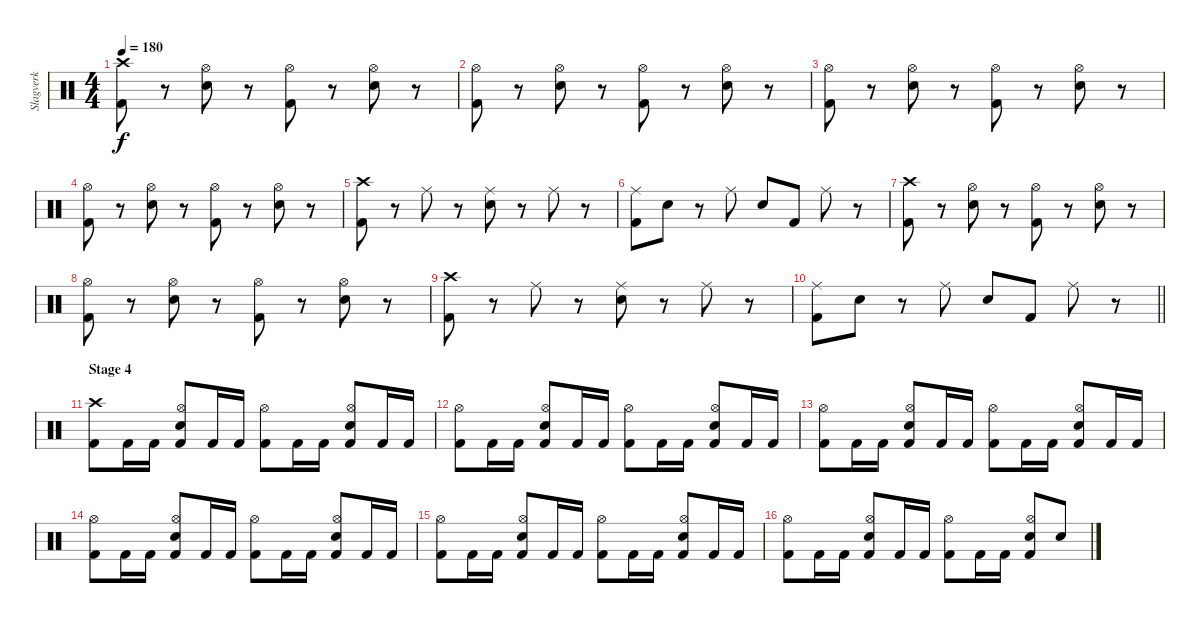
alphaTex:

\track ("Slagverk" "Slagverk") {instrument percussion}
\staff {score}
\articulation defaults
\ts (4 4)
\tempo 180
\clef neutral
\ks c
("Crash high (hit)" "Kick (hit) 2").8{dy f} r.8 ("Hi-Hat (open)" "Electric Snare (hit)").8 r.8 ("Hi-Hat (open)" "Kick (hit) 2").8 r.8 ("Hi-Hat (open)" "Electric Snare (hit)").8 r.8 |
("Hi-Hat (open)" "Kick (hit) 2").8 r.8 ("Hi-Hat (open)" "Electric Snare (hit)").8 r.8 ("Hi-Hat (open)" "Kick (hit) 2").8 r.8 ("Hi-Hat (open)" "Electric Snare (hit)").8 r.8 |
("Hi-Hat (open)" "Kick (hit) 2").8 r.8 ("Hi-Hat (open)" "Electric Snare (hit)").8 r.8 ("Hi-Hat (open)" "Kick (hit) 2").8 r.8 ("Hi-Hat (open)" "Electric Snare (hit)").8 r.8 |
("Hi-Hat (open)" "Kick (hit) 2").8 r.8 ("Hi-Hat (open)" "Electric Snare (hit)").8 r.8 ("Hi-Hat (open)" "Kick (hit) 2").8 r.8 ("Hi-Hat (open)" "Electric Snare (hit)").8 r.8 |
("Crash high (hit)" "Kick (hit) 2").8 r.8 "Ride (middle)".8 r.8 ("Ride (middle)" "Electric Snare (hit)").8 r.8 "Ride (middle)".8 r.8 |
("Ride (middle)" "Kick (hit) 2").8 "Electric Snare (hit)".8 r.8 "Ride (middle)".8 "Electric Snare (hit)".8 "Kick (hit) 2".8 "Ride (middle)".8 r.8 |
("Crash high (hit)" "Kick (hit) 2").8 r.8 ("Hi-Hat (open)" "Electric Snare (hit)").8 r.8 ("Hi-Hat (open)" "Kick (hit) 2").8 r.8 ("Hi-Hat (open)" "Electric Snare (hit)").8 r.8 |
("Hi-Hat (open)" "Kick (hit) 2").8 r.8 ("Hi-Hat (open)" "Electric Snare (hit)").8 r.8 ("Hi-Hat (open)" "Kick (hit) 2").8 r.8 ("Hi-Hat (open)" "Electric Snare (hit)").8 r.8 |
("Crash high (hit)" "Kick (hit) 2").8 r.8 "Ride (middle)".8 r.8 ("Ride (middle)" "Electric Snare (hit)").8 r.8 "Ride (middle)".8 r.8 |
\barLineRight lightlight
("Ride (middle)" "Kick (hit) 2").8 "Electric Snare (hit)".8 r.8 "Ride (middle)".8 "Electric Snare (hit)".8 "Kick (hit) 2".8 "Ride (middle)".8 r.8 |
\section ("" "Stage 4")
("Crash high (hit)" "Kick (hit) 2").8 "Kick (hit) 2".16 "Kick (hit) 2".16 ("Hi-Hat (open)" "Electric Snare (hit)" "Kick (hit) 2").8 "Kick (hit) 2".16 "Kick (hit) 2".16 ("Hi-Hat (open)" "Kick (hit) 2").8 "Kick (hit) 2".16 "Kick (hit) 2".16 ("Hi-Hat (open)" "Electric Snare (hit)" "Kick (hit) 2").8 "Kick (hit) 2".16 "Kick (hit) 2".16 |
("Hi-Hat (open)" "Kick (hit) 2").8 "Kick (hit) 2".16 "Kick (hit) 2".16 ("Hi-Hat (open)" "Electric Snare (hit)" "Kick (hit) 2").8 "Kick (hit) 2".16 "Kick (hit) 2".16 ("Hi-Hat (open)" "Kick (hit) 2").8 "Kick (hit) 2".16 "Kick (hit) 2".16 ("Hi-Hat (open)" "Electric Snare (hit)" "Kick (hit) 2").8 "Kick (hit) 2".16 "Kick (hit) 2".16 |
("Hi-Hat (open)" "Kick (hit) 2").8 "Kick (hit) 2".16 "Kick (hit) 2".16 ("Hi-Hat (open)" "Electric Snare (hit)" "Kick (hit) 2").8 "Kick (hit) 2".16 "Kick (hit) 2".16 ("Hi-Hat (open)" "Kick (hit) 2").8 "Kick (hit) 2".16 "Kick (hit) 2".16 ("Hi-Hat (open)" "Electric Snare (hit)" "Kick (hit) 2").8 "Kick (hit) 2".16 "Kick (hit) 2".16 |
("Hi-Hat (open)" "Kick (hit) 2").8 "Kick (hit) 2".16 "Kick (hit) 2".16 ("Hi-Hat (open)" "Electric Snare (hit)" "Kick (hit) 2").8 "Kick (hit) 2".16 "Kick (hit) 2".16 ("Hi-Hat (open)" "Kick (hit) 2").8 "Kick (hit) 2".16 "Kick (hit) 2".16 ("Hi-Hat (open)" "Electric Snare (hit)" "Kick (hit) 2").8 "Kick (hit) 2".16 "Kick (hit) 2".16 |
("Hi-Hat (open)" "Kick (hit) 2").8 "Kick (hit) 2".16 "Kick (hit) 2".16 ("Hi-Hat (open)" "Electric Snare (hit)" "Kick (hit) 2").8 "Kick (hit) 2".16 "Kick (hit) 2".16 ("Hi-Hat (open)" "Kick (hit) 2").8 "Kick (hit) 2".16 "Kick (hit) 2".16 ("Hi-Hat (open)" "Electric Snare (hit)" "Kick (hit) 2").8 "Kick (hit) 2".16 "Kick (hit) 2".16 |
("Hi-Hat (open)" "Kick (hit) 2").8 "Kick (hit) 2".16 "Kick (hit) 2".16 ("Hi-Hat (open)" "Electric Snare (hit)" "Kick (hit) 2").8 "Kick (hit) 2".16 "Kick (hit) 2".16 ("Hi-Hat (open)" "Kick (hit) 2").8 "Kick (hit) 2".16 "Kick (hit) 2".16 ("Hi-Hat (open)" "Electric Snare (hit)" "Kick (hit) 2").8 "Electric Snare (hit)".8
